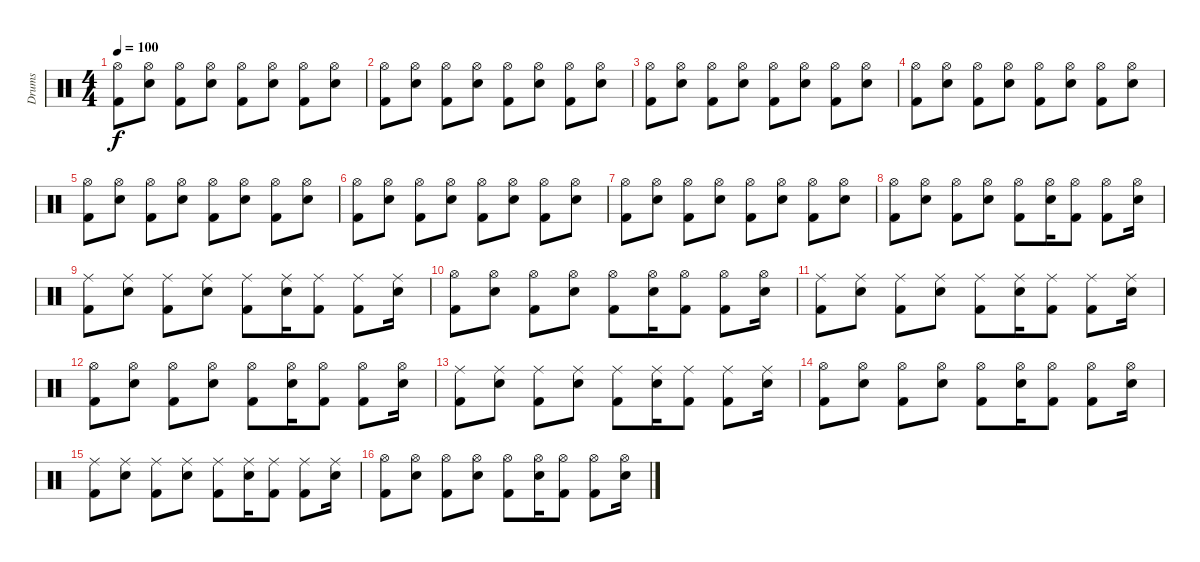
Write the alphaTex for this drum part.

\track ("Drums" "Drums") {instrument percussion}
\staff {score}
\articulation defaults
\ts (4 4)
\tempo 100
\clef neutral
\ks c
("Hi-Hat (open)" "Kick (hit) 2").8{dy f} ("Hi-Hat (open)" "Snare (hit) 2").8 ("Hi-Hat (open)" "Kick (hit) 2").8 ("Hi-Hat (open)" "Snare (hit) 2").8 ("Hi-Hat (open)" "Kick (hit) 2").8 ("Hi-Hat (open)" "Snare (hit) 2").8 ("Hi-Hat (open)" "Kick (hit) 2").8 ("Hi-Hat (open)" "Snare (hit) 2").8 |
("Hi-Hat (open)" "Kick (hit) 2").8 ("Hi-Hat (open)" "Snare (hit) 2").8 ("Hi-Hat (open)" "Kick (hit) 2").8 ("Hi-Hat (open)" "Snare (hit) 2").8 ("Hi-Hat (open)" "Kick (hit) 2").8 ("Hi-Hat (open)" "Snare (hit) 2").8 ("Hi-Hat (open)" "Kick (hit) 2").8 ("Hi-Hat (open)" "Snare (hit) 2").8 |
("Hi-Hat (open)" "Kick (hit) 2").8 ("Hi-Hat (open)" "Snare (hit) 2").8 ("Hi-Hat (open)" "Kick (hit) 2").8 ("Hi-Hat (open)" "Snare (hit) 2").8 ("Hi-Hat (open)" "Kick (hit) 2").8 ("Hi-Hat (open)" "Snare (hit) 2").8 ("Hi-Hat (open)" "Kick (hit) 2").8 ("Hi-Hat (open)" "Snare (hit) 2").8 |
("Hi-Hat (open)" "Kick (hit) 2").8 ("Hi-Hat (open)" "Snare (hit) 2").8 ("Hi-Hat (open)" "Kick (hit) 2").8 ("Hi-Hat (open)" "Snare (hit) 2").8 ("Hi-Hat (open)" "Kick (hit) 2").8 ("Hi-Hat (open)" "Snare (hit) 2").8 ("Hi-Hat (open)" "Kick (hit) 2").8 ("Hi-Hat (open)" "Snare (hit) 2").8 |
("Hi-Hat (open)" "Kick (hit) 2").8 ("Hi-Hat (open)" "Snare (hit) 2").8 ("Hi-Hat (open)" "Kick (hit) 2").8 ("Hi-Hat (open)" "Snare (hit) 2").8 ("Hi-Hat (open)" "Kick (hit) 2").8 ("Hi-Hat (open)" "Snare (hit) 2").8 ("Hi-Hat (open)" "Kick (hit) 2").8 ("Hi-Hat (open)" "Snare (hit) 2").8 |
("Hi-Hat (open)" "Kick (hit) 2").8 ("Hi-Hat (open)" "Snare (hit) 2").8 ("Hi-Hat (open)" "Kick (hit) 2").8 ("Hi-Hat (open)" "Snare (hit) 2").8 ("Hi-Hat (open)" "Kick (hit) 2").8 ("Hi-Hat (open)" "Snare (hit) 2").8 ("Hi-Hat (open)" "Kick (hit) 2").8 ("Hi-Hat (open)" "Snare (hit) 2").8 |
("Hi-Hat (open)" "Kick (hit) 2").8 ("Hi-Hat (open)" "Snare (hit) 2").8 ("Hi-Hat (open)" "Kick (hit) 2").8 ("Hi-Hat (open)" "Snare (hit) 2").8 ("Hi-Hat (open)" "Kick (hit) 2").8 ("Hi-Hat (open)" "Snare (hit) 2").8 ("Hi-Hat (open)" "Kick (hit) 2").8 ("Hi-Hat (open)" "Snare (hit) 2").8 |
("Hi-Hat (open)" "Kick (hit) 2").8 ("Hi-Hat (open)" "Snare (hit) 2").8 ("Hi-Hat (open)" "Kick (hit) 2").8 ("Hi-Hat (open)" "Snare (hit) 2").8 ("Hi-Hat (open)" "Kick (hit) 2").8 ("Hi-Hat (open)" "Snare (hit) 2").16 ("Hi-Hat (open)" "Kick (hit) 2").8 ("Hi-Hat (open)" "Kick (hit) 2").8 ("Hi-Hat (open)" "Snare (hit) 2").16 |
("Ride (middle)" "Kick (hit) 2").8 ("Ride (middle)" "Snare (hit) 2").8 ("Ride (middle)" "Kick (hit) 2").8 ("Ride (middle)" "Snare (hit) 2").8 ("Ride (middle)" "Kick (hit) 2").8 ("Ride (middle)" "Snare (hit) 2").16 ("Ride (middle)" "Kick (hit) 2").8 ("Ride (middle)" "Kick (hit) 2").8 ("Ride (middle)" "Snare (hit) 2").16 |
("Hi-Hat (open)" "Kick (hit) 2").8 ("Hi-Hat (open)" "Snare (hit) 2").8 ("Hi-Hat (open)" "Kick (hit) 2").8 ("Hi-Hat (open)" "Snare (hit) 2").8 ("Hi-Hat (open)" "Kick (hit) 2").8 ("Hi-Hat (open)" "Snare (hit) 2").16 ("Hi-Hat (open)" "Kick (hit) 2").8 ("Hi-Hat (open)" "Kick (hit) 2").8 ("Hi-Hat (open)" "Snare (hit) 2").16 |
("Ride (middle)" "Kick (hit) 2").8 ("Ride (middle)" "Snare (hit) 2").8 ("Ride (middle)" "Kick (hit) 2").8 ("Ride (middle)" "Snare (hit) 2").8 ("Ride (middle)" "Kick (hit) 2").8 ("Ride (middle)" "Snare (hit) 2").16 ("Ride (middle)" "Kick (hit) 2").8 ("Ride (middle)" "Kick (hit) 2").8 ("Ride (middle)" "Snare (hit) 2").16 |
("Hi-Hat (open)" "Kick (hit) 2").8 ("Hi-Hat (open)" "Snare (hit) 2").8 ("Hi-Hat (open)" "Kick (hit) 2").8 ("Hi-Hat (open)" "Snare (hit) 2").8 ("Hi-Hat (open)" "Kick (hit) 2").8 ("Hi-Hat (open)" "Snare (hit) 2").16 ("Hi-Hat (open)" "Kick (hit) 2").8 ("Hi-Hat (open)" "Kick (hit) 2").8 ("Hi-Hat (open)" "Snare (hit) 2").16 |
("Ride (middle)" "Kick (hit) 2").8 ("Ride (middle)" "Snare (hit) 2").8 ("Ride (middle)" "Kick (hit) 2").8 ("Ride (middle)" "Snare (hit) 2").8 ("Ride (middle)" "Kick (hit) 2").8 ("Ride (middle)" "Snare (hit) 2").16 ("Ride (middle)" "Kick (hit) 2").8 ("Ride (middle)" "Kick (hit) 2").8 ("Ride (middle)" "Snare (hit) 2").16 |
("Hi-Hat (open)" "Kick (hit) 2").8 ("Hi-Hat (open)" "Snare (hit) 2").8 ("Hi-Hat (open)" "Kick (hit) 2").8 ("Hi-Hat (open)" "Snare (hit) 2").8 ("Hi-Hat (open)" "Kick (hit) 2").8 ("Hi-Hat (open)" "Snare (hit) 2").16 ("Hi-Hat (open)" "Kick (hit) 2").8 ("Hi-Hat (open)" "Kick (hit) 2").8 ("Hi-Hat (open)" "Snare (hit) 2").16 |
("Ride (middle)" "Kick (hit) 2").8 ("Ride (middle)" "Snare (hit) 2").8 ("Ride (middle)" "Kick (hit) 2").8 ("Ride (middle)" "Snare (hit) 2").8 ("Ride (middle)" "Kick (hit) 2").8 ("Ride (middle)" "Snare (hit) 2").16 ("Ride (middle)" "Kick (hit) 2").8 ("Ride (middle)" "Kick (hit) 2").8 ("Ride (middle)" "Snare (hit) 2").16 |
("Hi-Hat (open)" "Kick (hit) 2").8 ("Hi-Hat (open)" "Snare (hit) 2").8 ("Hi-Hat (open)" "Kick (hit) 2").8 ("Hi-Hat (open)" "Snare (hit) 2").8 ("Hi-Hat (open)" "Kick (hit) 2").8 ("Hi-Hat (open)" "Snare (hit) 2").16 ("Hi-Hat (open)" "Kick (hit) 2").8 ("Hi-Hat (open)" "Kick (hit) 2").8 ("Hi-Hat (open)" "Snare (hit) 2").16
